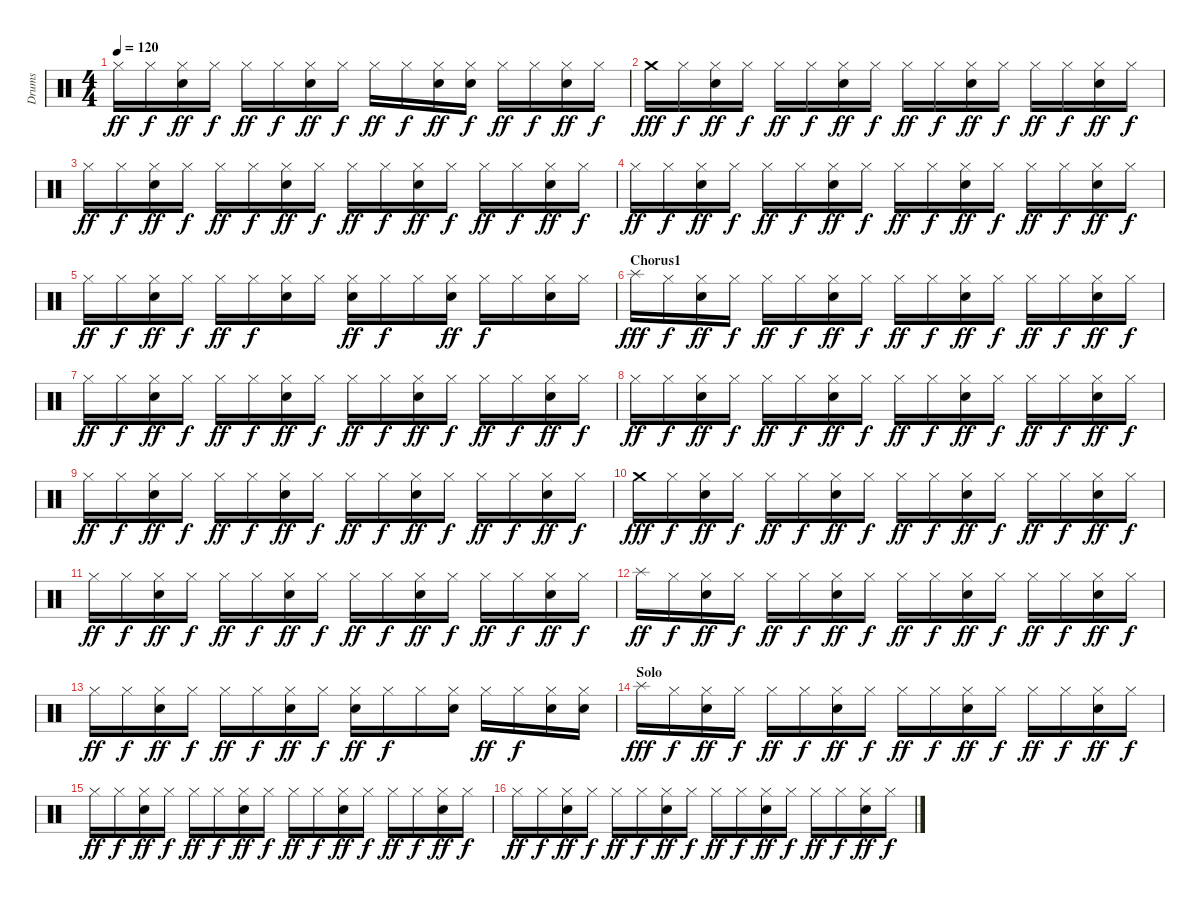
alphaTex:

\track ("Drums" "Drums") {instrument percussion}
\staff {score}
\articulation defaults
\ts (4 4)
\tempo 120
\clef neutral
\ks c "Hi-Hat (closed)".16{dy ff} "Hi-Hat (closed)".16{dy f}
("Hi-Hat (closed)" "Snare (hit) 2").16{dy ff} "Hi-Hat (closed)".16{dy f} "Hi-Hat (closed)".16{dy ff} "Hi-Hat (closed)".16{dy f} ("Hi-Hat (closed)" "Snare (hit) 2").16{dy ff} "Hi-Hat (closed)".16{dy f} "Hi-Hat (closed)".16{dy ff} "Hi-Hat (closed)".16{dy f} ("Hi-Hat (closed)" "Snare (hit) 2").16{dy ff} ("Hi-Hat (closed)" "Snare (hit) 2").16{dy f} "Hi-Hat (closed)".16{dy ff} "Hi-Hat (closed)".16{dy f} ("Hi-Hat (closed)" "Snare (hit) 2").16{dy ff} "Hi-Hat (closed)".16{dy f} |
"Crash medium (hit)".16{dy fff} "Hi-Hat (closed)".16{dy f} ("Hi-Hat (closed)" "Snare (hit) 2").16{dy ff} "Hi-Hat (closed)".16{dy f} "Hi-Hat (closed)".16{dy ff} "Hi-Hat (closed)".16{dy f} ("Hi-Hat (closed)" "Snare (hit) 2").16{dy ff} "Hi-Hat (closed)".16{dy f} "Hi-Hat (closed)".16{dy ff} "Hi-Hat (closed)".16{dy f} ("Hi-Hat (closed)" "Snare (hit) 2").16{dy ff} "Hi-Hat (closed)".16{dy f} "Hi-Hat (closed)".16{dy ff} "Hi-Hat (closed)".16{dy f} ("Hi-Hat (closed)" "Snare (hit) 2").16{dy ff} "Hi-Hat (closed)".16{dy f} |
"Hi-Hat (closed)".16{dy ff} "Hi-Hat (closed)".16{dy f} ("Hi-Hat (closed)" "Snare (hit) 2").16{dy ff} "Hi-Hat (closed)".16{dy f} "Hi-Hat (closed)".16{dy ff} "Hi-Hat (closed)".16{dy f} ("Hi-Hat (closed)" "Snare (hit) 2").16{dy ff} "Hi-Hat (closed)".16{dy f} "Hi-Hat (closed)".16{dy ff} "Hi-Hat (closed)".16{dy f} ("Hi-Hat (closed)" "Snare (hit) 2").16{dy ff} "Hi-Hat (closed)".16{dy f} "Hi-Hat (closed)".16{dy ff} "Hi-Hat (closed)".16{dy f} ("Hi-Hat (closed)" "Snare (hit) 2").16{dy ff} "Hi-Hat (closed)".16{dy f} |
"Hi-Hat (closed)".16{dy ff} "Hi-Hat (closed)".16{dy f} ("Hi-Hat (closed)" "Snare (hit) 2").16{dy ff} "Hi-Hat (closed)".16{dy f} "Hi-Hat (closed)".16{dy ff} "Hi-Hat (closed)".16{dy f} ("Hi-Hat (closed)" "Snare (hit) 2").16{dy ff} "Hi-Hat (closed)".16{dy f} "Hi-Hat (closed)".16{dy ff} "Hi-Hat (closed)".16{dy f} ("Hi-Hat (closed)" "Snare (hit) 2").16{dy ff} "Hi-Hat (closed)".16{dy f} "Hi-Hat (closed)".16{dy ff} "Hi-Hat (closed)".16{dy f} ("Hi-Hat (closed)" "Snare (hit) 2").16{dy ff} "Hi-Hat (closed)".16{dy f} |
"Hi-Hat (closed)".16{dy ff} "Hi-Hat (closed)".16{dy f} ("Hi-Hat (closed)" "Snare (hit) 2").16{dy ff} "Hi-Hat (closed)".16{dy f} "Hi-Hat (closed)".16{dy ff} "Hi-Hat (closed)".16{dy f} ("Hi-Hat (closed)" "Snare (hit) 2").16 "Hi-Hat (closed)".16 ("Hi-Hat (closed)" "Snare (hit) 2").16{dy ff} "Hi-Hat (closed)".16{dy f} "Hi-Hat (closed)".16 ("Hi-Hat (closed)" "Snare (hit) 2").16{dy ff} "Hi-Hat (closed)".16{dy f} "Hi-Hat (closed)".16 ("Hi-Hat (closed)" "Snare (hit) 2").16 "Hi-Hat (closed)".16 |
\section ("" "Chorus1")
"Splash (hit)".16{dy fff} "Hi-Hat (closed)".16{dy f} ("Hi-Hat (closed)" "Snare (hit) 2").16{dy ff} "Hi-Hat (closed)".16{dy f} "Hi-Hat (closed)".16{dy ff} "Hi-Hat (closed)".16{dy f} ("Hi-Hat (closed)" "Snare (hit) 2").16{dy ff} "Hi-Hat (closed)".16{dy f} "Hi-Hat (closed)".16{dy ff} "Hi-Hat (closed)".16{dy f} ("Hi-Hat (closed)" "Snare (hit) 2").16{dy ff} "Hi-Hat (closed)".16{dy f} "Hi-Hat (closed)".16{dy ff} "Hi-Hat (closed)".16{dy f} ("Hi-Hat (closed)" "Snare (hit) 2").16{dy ff} "Hi-Hat (closed)".16{dy f} |
"Hi-Hat (closed)".16{dy ff} "Hi-Hat (closed)".16{dy f} ("Hi-Hat (closed)" "Snare (hit) 2").16{dy ff} "Hi-Hat (closed)".16{dy f} "Hi-Hat (closed)".16{dy ff} "Hi-Hat (closed)".16{dy f} ("Hi-Hat (closed)" "Snare (hit) 2").16{dy ff} "Hi-Hat (closed)".16{dy f} "Hi-Hat (closed)".16{dy ff} "Hi-Hat (closed)".16{dy f} ("Hi-Hat (closed)" "Snare (hit) 2").16{dy ff} "Hi-Hat (closed)".16{dy f} "Hi-Hat (closed)".16{dy ff} "Hi-Hat (closed)".16{dy f} ("Hi-Hat (closed)" "Snare (hit) 2").16{dy ff} "Hi-Hat (closed)".16{dy f} |
"Hi-Hat (closed)".16{dy ff} "Hi-Hat (closed)".16{dy f} ("Hi-Hat (closed)" "Snare (hit) 2").16{dy ff} "Hi-Hat (closed)".16{dy f} "Hi-Hat (closed)".16{dy ff} "Hi-Hat (closed)".16{dy f} ("Hi-Hat (closed)" "Snare (hit) 2").16{dy ff} "Hi-Hat (closed)".16{dy f} "Hi-Hat (closed)".16{dy ff} "Hi-Hat (closed)".16{dy f} ("Hi-Hat (closed)" "Snare (hit) 2").16{dy ff} "Hi-Hat (closed)".16{dy f} "Hi-Hat (closed)".16{dy ff} "Hi-Hat (closed)".16{dy f} ("Hi-Hat (closed)" "Snare (hit) 2").16{dy ff} "Hi-Hat (closed)".16{dy f} |
"Hi-Hat (closed)".16{dy ff} "Hi-Hat (closed)".16{dy f} ("Hi-Hat (closed)" "Snare (hit) 2").16{dy ff} "Hi-Hat (closed)".16{dy f} "Hi-Hat (closed)".16{dy ff} "Hi-Hat (closed)".16{dy f} ("Hi-Hat (closed)" "Snare (hit) 2").16{dy ff} "Hi-Hat (closed)".16{dy f} "Hi-Hat (closed)".16{dy ff} "Hi-Hat (closed)".16{dy f} ("Hi-Hat (closed)" "Snare (hit) 2").16{dy ff} "Hi-Hat (closed)".16{dy f} "Hi-Hat (closed)".16{dy ff} "Hi-Hat (closed)".16{dy f} ("Hi-Hat (closed)" "Snare (hit) 2").16{dy ff} "Hi-Hat (closed)".16{dy f} |
"Crash medium (hit)".16{dy fff} "Hi-Hat (closed)".16{dy f} ("Hi-Hat (closed)" "Snare (hit) 2").16{dy ff} "Hi-Hat (closed)".16{dy f} "Hi-Hat (closed)".16{dy ff} "Hi-Hat (closed)".16{dy f} ("Hi-Hat (closed)" "Snare (hit) 2").16{dy ff} "Hi-Hat (closed)".16{dy f} "Hi-Hat (closed)".16{dy ff} "Hi-Hat (closed)".16{dy f} ("Hi-Hat (closed)" "Snare (hit) 2").16{dy ff} "Hi-Hat (closed)".16{dy f} "Hi-Hat (closed)".16{dy ff} "Hi-Hat (closed)".16{dy f} ("Hi-Hat (closed)" "Snare (hit) 2").16{dy ff} "Hi-Hat (closed)".16{dy f} |
"Hi-Hat (closed)".16{dy ff} "Hi-Hat (closed)".16{dy f} ("Hi-Hat (closed)" "Snare (hit) 2").16{dy ff} "Hi-Hat (closed)".16{dy f} "Hi-Hat (closed)".16{dy ff} "Hi-Hat (closed)".16{dy f} ("Hi-Hat (closed)" "Snare (hit) 2").16{dy ff} "Hi-Hat (closed)".16{dy f} "Hi-Hat (closed)".16{dy ff} "Hi-Hat (closed)".16{dy f} ("Hi-Hat (closed)" "Snare (hit) 2").16{dy ff} "Hi-Hat (closed)".16{dy f} "Hi-Hat (closed)".16{dy ff} "Hi-Hat (closed)".16{dy f} ("Hi-Hat (closed)" "Snare (hit) 2").16{dy ff} "Hi-Hat (closed)".16{dy f} |
"Splash (hit)".16{dy ff} "Hi-Hat (closed)".16{dy f} ("Hi-Hat (closed)" "Snare (hit) 2").16{dy ff} "Hi-Hat (closed)".16{dy f} "Hi-Hat (closed)".16{dy ff} "Hi-Hat (closed)".16{dy f} ("Hi-Hat (closed)" "Snare (hit) 2").16{dy ff} "Hi-Hat (closed)".16{dy f} "Hi-Hat (closed)".16{dy ff} "Hi-Hat (closed)".16{dy f} ("Hi-Hat (closed)" "Snare (hit) 2").16{dy ff} "Hi-Hat (closed)".16{dy f} "Hi-Hat (closed)".16{dy ff} "Hi-Hat (closed)".16{dy f} ("Hi-Hat (closed)" "Snare (hit) 2").16{dy ff} "Hi-Hat (closed)".16{dy f} |
"Hi-Hat (closed)".16{dy ff} "Hi-Hat (closed)".16{dy f} ("Hi-Hat (closed)" "Snare (hit) 2").16{dy ff} "Hi-Hat (closed)".16{dy f} "Hi-Hat (closed)".16{dy ff} "Hi-Hat (closed)".16{dy f} ("Hi-Hat (closed)" "Snare (hit) 2").16{dy ff} "Hi-Hat (closed)".16{dy f} ("Hi-Hat (closed)" "Snare (hit) 2").16{dy ff} "Hi-Hat (closed)".16{dy f} "Hi-Hat (closed)".16 ("Hi-Hat (closed)" "Snare (hit) 2").16 "Hi-Hat (closed)".16{dy ff} "Hi-Hat (closed)".16{dy f} ("Hi-Hat (closed)" "Snare (hit) 2").16 ("Hi-Hat (closed)" "Snare (hit) 2").16 |
\section ("" "Solo")
"Splash (hit)".16{dy fff} "Hi-Hat (closed)".16{dy f} ("Hi-Hat (closed)" "Snare (hit) 2").16{dy ff} "Hi-Hat (closed)".16{dy f} "Hi-Hat (closed)".16{dy ff} "Hi-Hat (closed)".16{dy f} ("Hi-Hat (closed)" "Snare (hit) 2").16{dy ff} "Hi-Hat (closed)".16{dy f} "Hi-Hat (closed)".16{dy ff} "Hi-Hat (closed)".16{dy f} ("Hi-Hat (closed)" "Snare (hit) 2").16{dy ff} "Hi-Hat (closed)".16{dy f} "Hi-Hat (closed)".16{dy ff} "Hi-Hat (closed)".16{dy f} ("Hi-Hat (closed)" "Snare (hit) 2").16{dy ff} "Hi-Hat (closed)".16{dy f} |
"Hi-Hat (closed)".16{dy ff} "Hi-Hat (closed)".16{dy f} ("Hi-Hat (closed)" "Snare (hit) 2").16{dy ff} "Hi-Hat (closed)".16{dy f} "Hi-Hat (closed)".16{dy ff} "Hi-Hat (closed)".16{dy f} ("Hi-Hat (closed)" "Snare (hit) 2").16{dy ff} "Hi-Hat (closed)".16{dy f} "Hi-Hat (closed)".16{dy ff} "Hi-Hat (closed)".16{dy f} ("Hi-Hat (closed)" "Snare (hit) 2").16{dy ff} "Hi-Hat (closed)".16{dy f} "Hi-Hat (closed)".16{dy ff} "Hi-Hat (closed)".16{dy f} ("Hi-Hat (closed)" "Snare (hit) 2").16{dy ff} "Hi-Hat (closed)".16{dy f} |
"Hi-Hat (closed)".16{dy ff} "Hi-Hat (closed)".16{dy f} ("Hi-Hat (closed)" "Snare (hit) 2").16{dy ff} "Hi-Hat (closed)".16{dy f} "Hi-Hat (closed)".16{dy ff} "Hi-Hat (closed)".16{dy f} ("Hi-Hat (closed)" "Snare (hit) 2").16{dy ff} "Hi-Hat (closed)".16{dy f} "Hi-Hat (closed)".16{dy ff} "Hi-Hat (closed)".16{dy f} ("Hi-Hat (closed)" "Snare (hit) 2").16{dy ff} "Hi-Hat (closed)".16{dy f} "Hi-Hat (closed)".16{dy ff} "Hi-Hat (closed)".16{dy f} ("Hi-Hat (closed)" "Snare (hit) 2").16{dy ff} "Hi-Hat (closed)".16{dy f}
